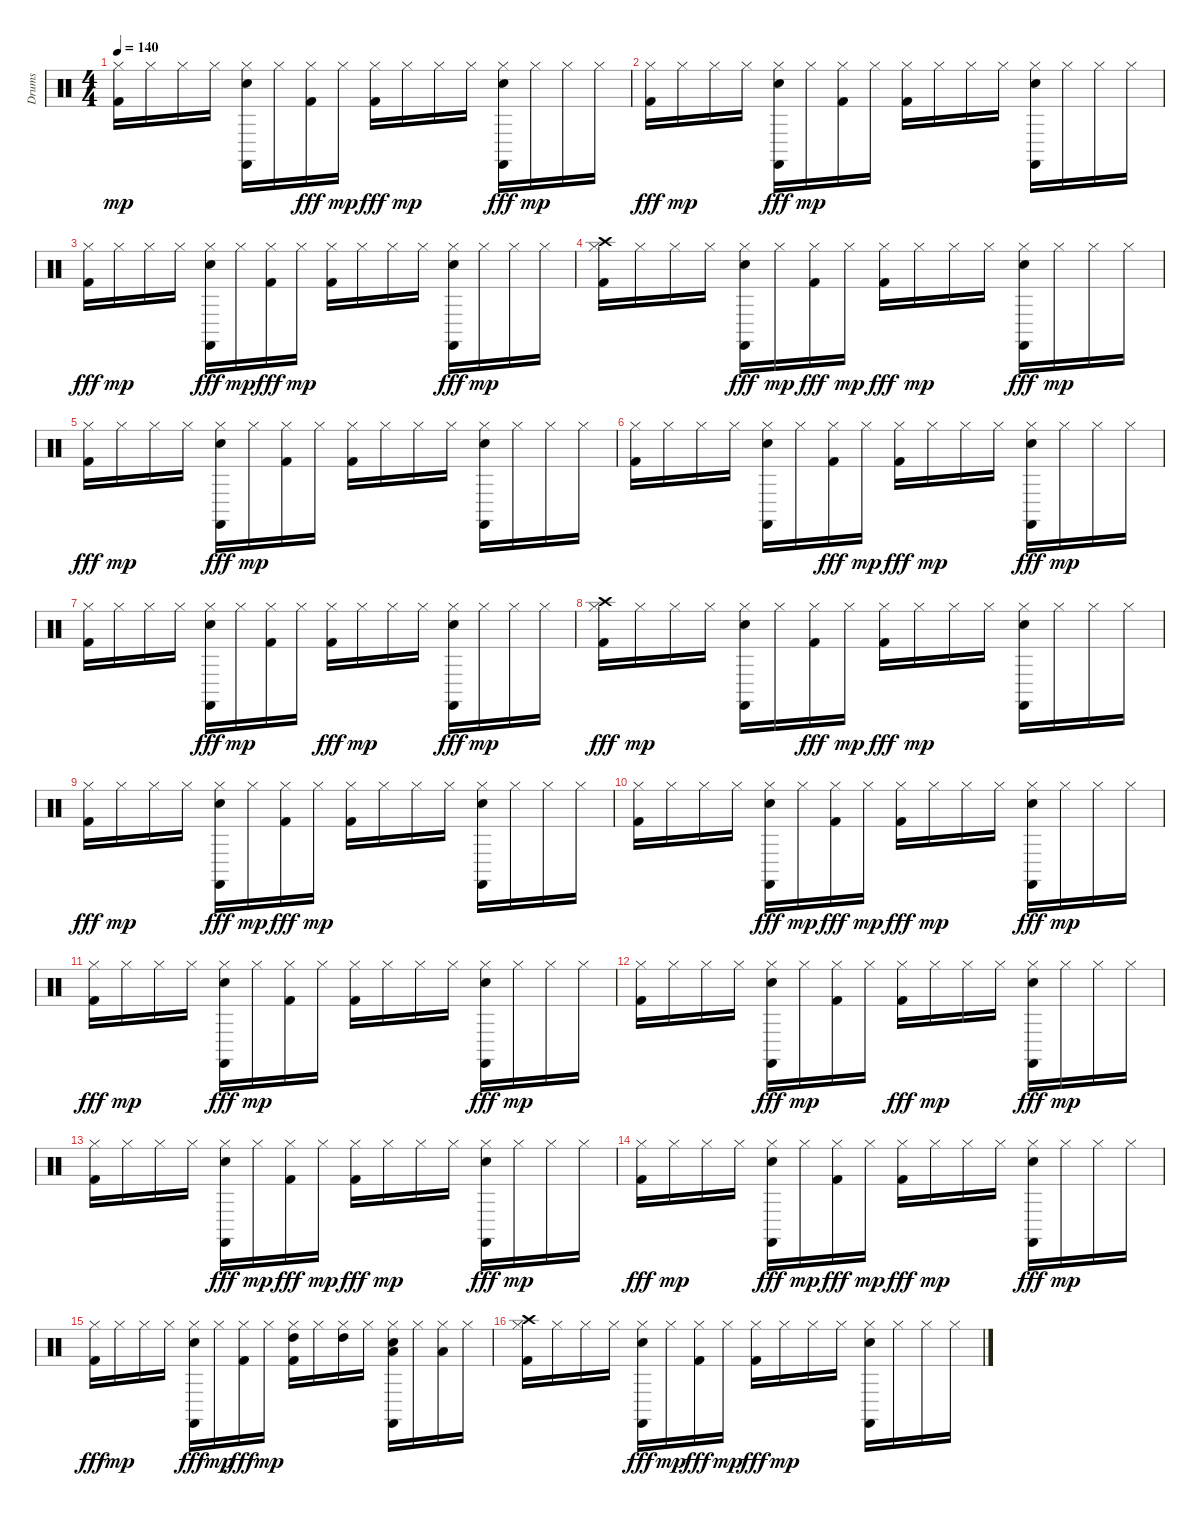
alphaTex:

\track ("Drums" "Drums") {instrument percussion}
\staff {score}
\articulation defaults
\ts (4 4)
\tempo 140
\clef neutral
\ks c
("Kick (hit) 2" "Hi-Hat (closed)").16{dy mp} "Hi-Hat (closed)".16 "Hi-Hat (closed)".16 "Hi-Hat (closed)".16 ("Castanets (hit)" "Snare (hit) 2" "Hi-Hat (closed)").16 "Hi-Hat (closed)".16 ("Hi-Hat (closed)" "Kick (hit) 2").16{dy fff} "Hi-Hat (closed)".16{dy mp} ("Hi-Hat (closed)" "Kick (hit) 2").16{dy fff} "Hi-Hat (closed)".16{dy mp} "Hi-Hat (closed)".16 "Hi-Hat (closed)".16 ("Hi-Hat (closed)" "Snare (hit) 2" "Castanets (hit)").16{dy fff} "Hi-Hat (closed)".16{dy mp} "Hi-Hat (closed)".16 "Hi-Hat (closed)".16 |
("Hi-Hat (closed)" "Kick (hit) 2").16{dy fff} "Hi-Hat (closed)".16{dy mp} "Hi-Hat (closed)".16 "Hi-Hat (closed)".16 ("Snare (hit) 2" "Hi-Hat (closed)" "Castanets (hit)").16{dy fff} "Hi-Hat (closed)".16{dy mp} ("Kick (hit) 2" "Hi-Hat (closed)").16 "Hi-Hat (closed)".16 ("Kick (hit) 2" "Hi-Hat (closed)").16 "Hi-Hat (closed)".16 "Hi-Hat (closed)".16 "Hi-Hat (closed)".16 ("Castanets (hit)" "Snare (hit) 2" "Hi-Hat (closed)").16 "Hi-Hat (closed)".16 "Hi-Hat (closed)".16 "Hi-Hat (closed)".16 |
("Hi-Hat (closed)" "Kick (hit) 2").16{dy fff} "Hi-Hat (closed)".16{dy mp} "Hi-Hat (closed)".16 "Hi-Hat (closed)".16 ("Hi-Hat (closed)" "Snare (hit) 2" "Castanets (hit)").16{dy fff} "Hi-Hat (closed)".16{dy mp} ("Hi-Hat (closed)" "Kick (hit) 2").16{dy fff} "Hi-Hat (closed)".16{dy mp} ("Kick (hit) 2" "Hi-Hat (closed)").16 "Hi-Hat (closed)".16 "Hi-Hat (closed)".16 "Hi-Hat (closed)".16 ("Snare (hit) 2" "Hi-Hat (closed)" "Castanets (hit)").16{dy fff} "Hi-Hat (closed)".16{dy mp} "Hi-Hat (closed)".16 "Hi-Hat (closed)".16 |
("Kick (hit) 2" "Crash high (hit)" "Hi-Hat (closed)").16 "Hi-Hat (closed)".16 "Hi-Hat (closed)".16 "Hi-Hat (closed)".16 ("Hi-Hat (closed)" "Snare (hit) 2" "Castanets (hit)").16{dy fff} "Hi-Hat (closed)".16{dy mp} ("Hi-Hat (closed)" "Kick (hit) 2").16{dy fff} "Hi-Hat (closed)".16{dy mp} ("Hi-Hat (closed)" "Kick (hit) 2").16{dy fff} "Hi-Hat (closed)".16{dy mp} "Hi-Hat (closed)".16 "Hi-Hat (closed)".16 ("Hi-Hat (closed)" "Snare (hit) 2" "Castanets (hit)").16{dy fff} "Hi-Hat (closed)".16{dy mp} "Hi-Hat (closed)".16 "Hi-Hat (closed)".16 |
("Hi-Hat (closed)" "Kick (hit) 2").16{dy fff} "Hi-Hat (closed)".16{dy mp} "Hi-Hat (closed)".16 "Hi-Hat (closed)".16 ("Hi-Hat (closed)" "Snare (hit) 2" "Castanets (hit)").16{dy fff} "Hi-Hat (closed)".16{dy mp} ("Kick (hit) 2" "Hi-Hat (closed)").16 "Hi-Hat (closed)".16 ("Kick (hit) 2" "Hi-Hat (closed)").16 "Hi-Hat (closed)".16 "Hi-Hat (closed)".16 "Hi-Hat (closed)".16 ("Castanets (hit)" "Snare (hit) 2" "Hi-Hat (closed)").16 "Hi-Hat (closed)".16 "Hi-Hat (closed)".16 "Hi-Hat (closed)".16 |
("Kick (hit) 2" "Hi-Hat (closed)").16 "Hi-Hat (closed)".16 "Hi-Hat (closed)".16 "Hi-Hat (closed)".16 ("Snare (hit) 2" "Castanets (hit)" "Hi-Hat (closed)").16 "Hi-Hat (closed)".16 ("Hi-Hat (closed)" "Kick (hit) 2").16{dy fff} "Hi-Hat (closed)".16{dy mp} ("Hi-Hat (closed)" "Kick (hit) 2").16{dy fff} "Hi-Hat (closed)".16{dy mp} "Hi-Hat (closed)".16 "Hi-Hat (closed)".16 ("Hi-Hat (closed)" "Snare (hit) 2" "Castanets (hit)").16{dy fff} "Hi-Hat (closed)".16{dy mp} "Hi-Hat (closed)".16 "Hi-Hat (closed)".16 |
("Kick (hit) 2" "Hi-Hat (closed)").16 "Hi-Hat (closed)".16 "Hi-Hat (closed)".16 "Hi-Hat (closed)".16 ("Hi-Hat (closed)" "Castanets (hit)" "Snare (hit) 2").16{dy fff} "Hi-Hat (closed)".16{dy mp} ("Kick (hit) 2" "Hi-Hat (closed)").16 "Hi-Hat (closed)".16 ("Hi-Hat (closed)" "Kick (hit) 2").16{dy fff} "Hi-Hat (closed)".16{dy mp} "Hi-Hat (closed)".16 "Hi-Hat (closed)".16 ("Snare (hit) 2" "Hi-Hat (closed)" "Castanets (hit)").16{dy fff} "Hi-Hat (closed)".16{dy mp} "Hi-Hat (closed)".16 "Hi-Hat (closed)".16 |
("Kick (hit) 2" "Hi-Hat (closed)" "Crash high (hit)").16{dy fff} "Hi-Hat (closed)".16{dy mp} "Hi-Hat (closed)".16 "Hi-Hat (closed)".16 ("Snare (hit) 2" "Castanets (hit)" "Hi-Hat (closed)").16 "Hi-Hat (closed)".16 ("Hi-Hat (closed)" "Kick (hit) 2").16{dy fff} "Hi-Hat (closed)".16{dy mp} ("Hi-Hat (closed)" "Kick (hit) 2").16{dy fff} "Hi-Hat (closed)".16{dy mp} "Hi-Hat (closed)".16 "Hi-Hat (closed)".16 ("Snare (hit) 2" "Castanets (hit)" "Hi-Hat (closed)").16 "Hi-Hat (closed)".16 "Hi-Hat (closed)".16 "Hi-Hat (closed)".16 |
("Hi-Hat (closed)" "Kick (hit) 2").16{dy fff} "Hi-Hat (closed)".16{dy mp} "Hi-Hat (closed)".16 "Hi-Hat (closed)".16 ("Hi-Hat (closed)" "Snare (hit) 2" "Castanets (hit)").16{dy fff} "Hi-Hat (closed)".16{dy mp} ("Hi-Hat (closed)" "Kick (hit) 2").16{dy fff} "Hi-Hat (closed)".16{dy mp} ("Kick (hit) 2" "Hi-Hat (closed)").16 "Hi-Hat (closed)".16 "Hi-Hat (closed)".16 "Hi-Hat (closed)".16 ("Snare (hit) 2" "Castanets (hit)" "Hi-Hat (closed)").16 "Hi-Hat (closed)".16 "Hi-Hat (closed)".16 "Hi-Hat (closed)".16 |
("Kick (hit) 2" "Hi-Hat (closed)").16 "Hi-Hat (closed)".16 "Hi-Hat (closed)".16 "Hi-Hat (closed)".16 ("Castanets (hit)" "Hi-Hat (closed)" "Snare (hit) 2").16{dy fff} "Hi-Hat (closed)".16{dy mp} ("Hi-Hat (closed)" "Kick (hit) 2").16{dy fff} "Hi-Hat (closed)".16{dy mp} ("Hi-Hat (closed)" "Kick (hit) 2").16{dy fff} "Hi-Hat (closed)".16{dy mp} "Hi-Hat (closed)".16 "Hi-Hat (closed)".16 ("Hi-Hat (closed)" "Snare (hit) 2" "Castanets (hit)").16{dy fff} "Hi-Hat (closed)".16{dy mp} "Hi-Hat (closed)".16 "Hi-Hat (closed)".16 |
("Hi-Hat (closed)" "Kick (hit) 2").16{dy fff} "Hi-Hat (closed)".16{dy mp} "Hi-Hat (closed)".16 "Hi-Hat (closed)".16 ("Castanets (hit)" "Hi-Hat (closed)" "Snare (hit) 2").16{dy fff} "Hi-Hat (closed)".16{dy mp} ("Kick (hit) 2" "Hi-Hat (closed)").16 "Hi-Hat (closed)".16 ("Kick (hit) 2" "Hi-Hat (closed)").16 "Hi-Hat (closed)".16 "Hi-Hat (closed)".16 "Hi-Hat (closed)".16 ("Castanets (hit)" "Hi-Hat (closed)" "Snare (hit) 2").16{dy fff} "Hi-Hat (closed)".16{dy mp} "Hi-Hat (closed)".16 "Hi-Hat (closed)".16 |
("Kick (hit) 2" "Hi-Hat (closed)").16 "Hi-Hat (closed)".16 "Hi-Hat (closed)".16 "Hi-Hat (closed)".16 ("Hi-Hat (closed)" "Castanets (hit)" "Snare (hit) 2").16{dy fff} "Hi-Hat (closed)".16{dy mp} ("Kick (hit) 2" "Hi-Hat (closed)").16 "Hi-Hat (closed)".16 ("Hi-Hat (closed)" "Kick (hit) 2").16{dy fff} "Hi-Hat (closed)".16{dy mp} "Hi-Hat (closed)".16 "Hi-Hat (closed)".16 ("Castanets (hit)" "Hi-Hat (closed)" "Snare (hit) 2").16{dy fff} "Hi-Hat (closed)".16{dy mp} "Hi-Hat (closed)".16 "Hi-Hat (closed)".16 |
("Kick (hit) 2" "Hi-Hat (closed)").16 "Hi-Hat (closed)".16 "Hi-Hat (closed)".16 "Hi-Hat (closed)".16 ("Hi-Hat (closed)" "Castanets (hit)" "Snare (hit) 2").16{dy fff} "Hi-Hat (closed)".16{dy mp} ("Hi-Hat (closed)" "Kick (hit) 2").16{dy fff} "Hi-Hat (closed)".16{dy mp} ("Hi-Hat (closed)" "Kick (hit) 2").16{dy fff} "Hi-Hat (closed)".16{dy mp} "Hi-Hat (closed)".16 "Hi-Hat (closed)".16 ("Hi-Hat (closed)" "Castanets (hit)" "Snare (hit) 2").16{dy fff} "Hi-Hat (closed)".16{dy mp} "Hi-Hat (closed)".16 "Hi-Hat (closed)".16 |
("Hi-Hat (closed)" "Kick (hit) 2").16{dy fff} "Hi-Hat (closed)".16{dy mp} "Hi-Hat (closed)".16 "Hi-Hat (closed)".16 ("Hi-Hat (closed)" "Snare (hit) 2" "Castanets (hit)").16{dy fff} "Hi-Hat (closed)".16{dy mp} ("Hi-Hat (closed)" "Kick (hit) 2").16{dy fff} "Hi-Hat (closed)".16{dy mp} ("Hi-Hat (closed)" "Kick (hit) 2").16{dy fff} "Hi-Hat (closed)".16{dy mp} "Hi-Hat (closed)".16 "Hi-Hat (closed)".16 ("Hi-Hat (closed)" "Snare (hit) 2" "Castanets (hit)").16{dy fff} "Hi-Hat (closed)".16{dy mp} "Hi-Hat (closed)".16 "Hi-Hat (closed)".16 |
("Hi-Hat (closed)" "Kick (hit) 2").16{dy fff} "Hi-Hat (closed)".16{dy mp} "Hi-Hat (closed)".16 "Hi-Hat (closed)".16 ("Hi-Hat (closed)" "Castanets (hit)" "Snare (hit) 2").16{dy fff} "Hi-Hat (closed)".16{dy mp} ("Hi-Hat (closed)" "Kick (hit) 2").16{dy fff} "Hi-Hat (closed)".16{dy mp} ("Kick (hit) 2" "High Tom (hit)" "Hi-Hat (closed)").16 "Hi-Hat (closed)".16 ("High Tom (hit)" "Hi-Hat (closed)").16 "Hi-Hat (closed)".16 ("Snare (hit) 2" "Low Tom (hit)" "Castanets (hit)" "Hi-Hat (closed)").16 "Hi-Hat (closed)".16 ("Low Tom (hit)" "Hi-Hat (closed)").16 "Hi-Hat (closed)".16 |
("Kick (hit) 2" "Crash high (hit)" "Hi-Hat (closed)").16 "Hi-Hat (closed)".16 "Hi-Hat (closed)".16 "Hi-Hat (closed)".16 ("Hi-Hat (closed)" "Castanets (hit)" "Snare (hit) 2").16{dy fff} "Hi-Hat (closed)".16{dy mp} ("Hi-Hat (closed)" "Kick (hit) 2").16{dy fff} "Hi-Hat (closed)".16{dy mp} ("Hi-Hat (closed)" "Kick (hit) 2").16{dy fff} "Hi-Hat (closed)".16{dy mp} "Hi-Hat (closed)".16 "Hi-Hat (closed)".16 ("Snare (hit) 2" "Castanets (hit)" "Hi-Hat (closed)").16 "Hi-Hat (closed)".16 "Hi-Hat (closed)".16 "Hi-Hat (closed)".16
